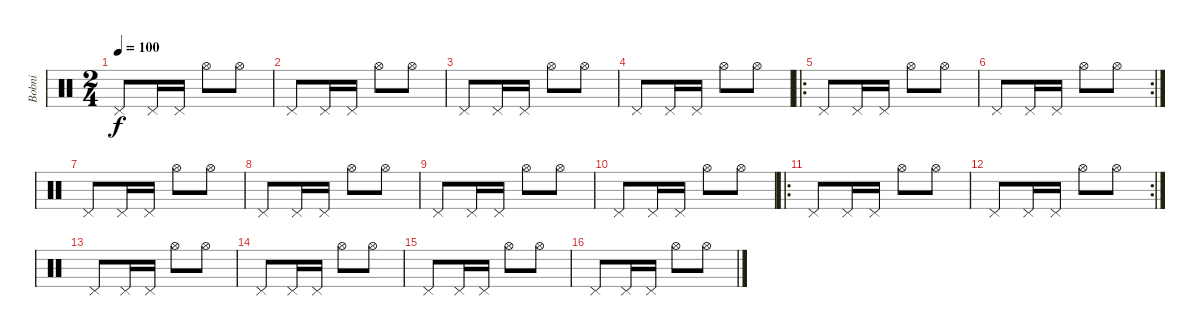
\track ("Bobni" "Bobni") {instrument percussion}
\staff {score}
\articulation defaults
\ts (2 4)
\tempo 100
\clef neutral
\ks c "Pedal Hi-Hat (hit)".8{dy f} "Pedal Hi-Hat (hit)".16 "Pedal Hi-Hat (hit)".16 "Hi-Hat (open)".8 "Hi-Hat (open)".8
|
"Pedal Hi-Hat (hit)".8 "Pedal Hi-Hat (hit)".16 "Pedal Hi-Hat (hit)".16 "Hi-Hat (open)".8 "Hi-Hat (open)".8 |
"Pedal Hi-Hat (hit)".8 "Pedal Hi-Hat (hit)".16 "Pedal Hi-Hat (hit)".16 "Hi-Hat (open)".8 "Hi-Hat (open)".8 |
"Pedal Hi-Hat (hit)".8 "Pedal Hi-Hat (hit)".16 "Pedal Hi-Hat (hit)".16 "Hi-Hat (open)".8 "Hi-Hat (open)".8 |
\ro "Pedal Hi-Hat (hit)".8 "Pedal Hi-Hat (hit)".16 "Pedal Hi-Hat (hit)".16 "Hi-Hat (open)".8 "Hi-Hat (open)".8
|
\rc 2 "Pedal Hi-Hat (hit)".8 "Pedal Hi-Hat (hit)".16 "Pedal Hi-Hat (hit)".16 "Hi-Hat (open)".8 "Hi-Hat (open)".8
|
"Pedal Hi-Hat (hit)".8 "Pedal Hi-Hat (hit)".16 "Pedal Hi-Hat (hit)".16 "Hi-Hat (open)".8 "Hi-Hat (open)".8 |
"Pedal Hi-Hat (hit)".8 "Pedal Hi-Hat (hit)".16 "Pedal Hi-Hat (hit)".16 "Hi-Hat (open)".8 "Hi-Hat (open)".8 |
"Pedal Hi-Hat (hit)".8 "Pedal Hi-Hat (hit)".16 "Pedal Hi-Hat (hit)".16 "Hi-Hat (open)".8 "Hi-Hat (open)".8 |
"Pedal Hi-Hat (hit)".8 "Pedal Hi-Hat (hit)".16 "Pedal Hi-Hat (hit)".16 "Hi-Hat (open)".8 "Hi-Hat (open)".8 |
\ro "Pedal Hi-Hat (hit)".8 "Pedal Hi-Hat (hit)".16 "Pedal Hi-Hat (hit)".16 "Hi-Hat (open)".8 "Hi-Hat (open)".8
|
\rc 2 "Pedal Hi-Hat (hit)".8 "Pedal Hi-Hat (hit)".16 "Pedal Hi-Hat (hit)".16 "Hi-Hat (open)".8 "Hi-Hat (open)".8
|
"Pedal Hi-Hat (hit)".8 "Pedal Hi-Hat (hit)".16 "Pedal Hi-Hat (hit)".16 "Hi-Hat (open)".8 "Hi-Hat (open)".8 |
"Pedal Hi-Hat (hit)".8 "Pedal Hi-Hat (hit)".16 "Pedal Hi-Hat (hit)".16 "Hi-Hat (open)".8 "Hi-Hat (open)".8 |
"Pedal Hi-Hat (hit)".8 "Pedal Hi-Hat (hit)".16 "Pedal Hi-Hat (hit)".16 "Hi-Hat (open)".8 "Hi-Hat (open)".8 |
"Pedal Hi-Hat (hit)".8 "Pedal Hi-Hat (hit)".16 "Pedal Hi-Hat (hit)".16 "Hi-Hat (open)".8 "Hi-Hat (open)".8
